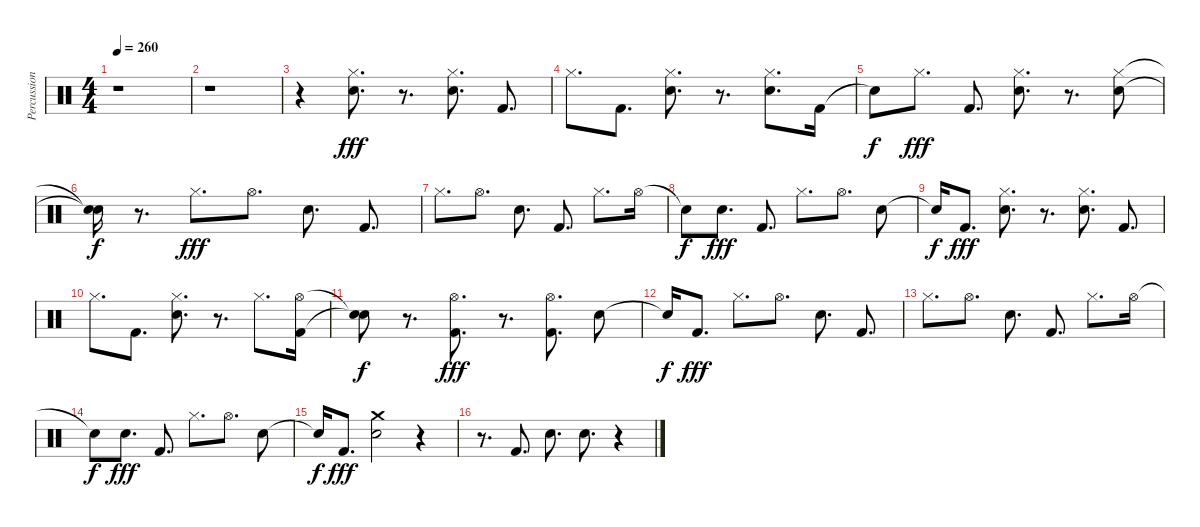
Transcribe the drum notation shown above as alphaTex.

\track ("Percussion" "Percussion") {instrument percussion}
\staff {score}
\articulation defaults
\ts (4 4)
\tempo 260
\clef neutral
\ks c
r.1{dy fff} |
r.1 |
r.4 ("Hi-Hat (closed)" "Electric Snare (hit)").8{d} r.8{d} ("Electric Snare (hit)" "Hi-Hat (closed)").8{d} "Kick (hit) 2".8{d} |
"Hi-Hat (closed)".8{d} "Kick (hit) 2".8{d} ("Electric Snare (hit)" "Hi-Hat (closed)").8{d} r.8{d} ("Electric Snare (hit)" "Hi-Hat (closed)").8{d} "Kick (hit) 2".16 |
"Snare (hit)"{t}.8{dy f} "Hi-Hat (closed)".8{d dy fff} "Kick (hit) 2".8{d} ("Electric Snare (hit)" "Hi-Hat (closed)").8{d} r.8{d} ("Hi-Hat (closed)" "Electric Snare (hit)").8 |
("Snare (hit)"{t} "Snare (hit)"{t}).16{dy f} r.8{d} "Hi-Hat (closed)".8{d dy fff} "Hi-Hat (open)".8{d} "Electric Snare (hit)".8{d} "Kick (hit) 2".8{d} |
"Hi-Hat (closed)".8{d} "Hi-Hat (open)".8{d} "Electric Snare (hit)".8{d} "Kick (hit) 2".8{d} "Hi-Hat (closed)".8{d} "Hi-Hat (open)".16 |
"Snare (hit)"{t}.8{dy f} "Electric Snare (hit)".8{d dy fff} "Kick (hit) 2".8{d} "Hi-Hat (closed)".8{d} "Hi-Hat (open)".8{d} "Electric Snare (hit)".8 |
"Snare (hit)"{t}.16{dy f} "Kick (hit) 2".8{d dy fff} ("Hi-Hat (closed)" "Electric Snare (hit)").8{d} r.8{d} ("Electric Snare (hit)" "Hi-Hat (closed)").8{d} "Kick (hit) 2".8{d} |
"Hi-Hat (closed)".8{d} "Kick (hit) 2".8{d} ("Electric Snare (hit)" "Hi-Hat (closed)").8{d} r.8{d} "Hi-Hat (closed)".8{d} ("Hi-Hat (open)" "Kick (hit) 2").16 |
("Snare (hit)"{t} "Snare (hit)"{t}).8{dy f} r.8{d} ("Hi-Hat (open)" "Kick (hit) 2").8{d dy fff} r.8{d} ("Hi-Hat (open)" "Kick (hit) 2").8{d} "Electric Snare (hit)".8 |
"Snare (hit)"{t}.16{dy f} "Kick (hit) 2".8{d dy fff} "Hi-Hat (closed)".8{d} "Hi-Hat (open)".8{d} "Electric Snare (hit)".8{d} "Kick (hit) 2".8{d} |
"Hi-Hat (closed)".8{d} "Hi-Hat (open)".8{d} "Electric Snare (hit)".8{d} "Kick (hit) 2".8{d} "Hi-Hat (closed)".8{d} "Hi-Hat (open)".16 |
"Snare (hit)"{t}.8{dy f} "Electric Snare (hit)".8{d dy fff} "Kick (hit) 2".8{d} "Hi-Hat (closed)".8{d} "Hi-Hat (open)".8{d} "Electric Snare (hit)".8 |
"Snare (hit)"{t}.16{dy f} "Kick (hit) 2".8{d dy fff} ("Electric Snare (hit)" "Crash medium (hit)").2 r.4 |
r.8{d} "Kick (hit) 2".8{d} "Electric Snare (hit)".8{d} "Electric Snare (hit)".8{d} r.4
